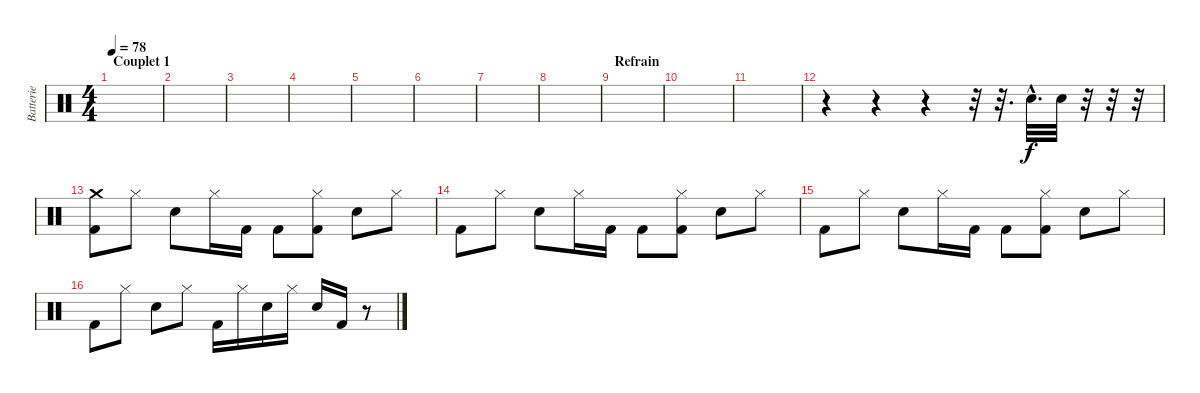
\track ("Batterie" "Batterie") {instrument percussion}
\staff {score}
\articulation defaults
\ts (4 4)
\section ("" "Couplet 1")
\tempo 78
\clef neutral
\ks c
|
|
|
|
|
|
|
|
\section ("" "Refrain")
|
|
|
r.4 r.4 r.4 r.32 r.32{d} "Electric Snare (hit)"{hac}.32{d} "Electric Snare (hit)".32 r.32 r.32 r.32 |
("Crash medium (hit)" "Kick (hit) 2").8 "Hi-Hat (closed)".8 "Electric Snare (hit)".8 "Hi-Hat (closed)".16 "Kick (hit) 2".16 "Kick (hit) 2".8 ("Hi-Hat (closed)" "Kick (hit) 2").8 "Electric Snare (hit)".8 "Hi-Hat (closed)".8 |
"Kick (hit) 2".8 "Hi-Hat (closed)".8 "Electric Snare (hit)".8 "Hi-Hat (closed)".16 "Kick (hit) 2".16 "Kick (hit) 2".8 ("Hi-Hat (closed)" "Kick (hit) 2").8 "Electric Snare (hit)".8 "Hi-Hat (closed)".8 |
"Kick (hit) 2".8 "Hi-Hat (closed)".8 "Electric Snare (hit)".8 "Hi-Hat (closed)".16 "Kick (hit) 2".16 "Kick (hit) 2".8 ("Hi-Hat (closed)" "Kick (hit) 2").8 "Electric Snare (hit)".8 "Hi-Hat (closed)".8 |
"Kick (hit) 2".8 "Hi-Hat (closed)".8 "Electric Snare (hit)".8 "Hi-Hat (closed)".8 "Kick (hit) 2".16 "Hi-Hat (closed)".16 "Electric Snare (hit)".16 "Hi-Hat (closed)".16 "Electric Snare (hit)".16 "Kick (hit) 2".16 r.8
